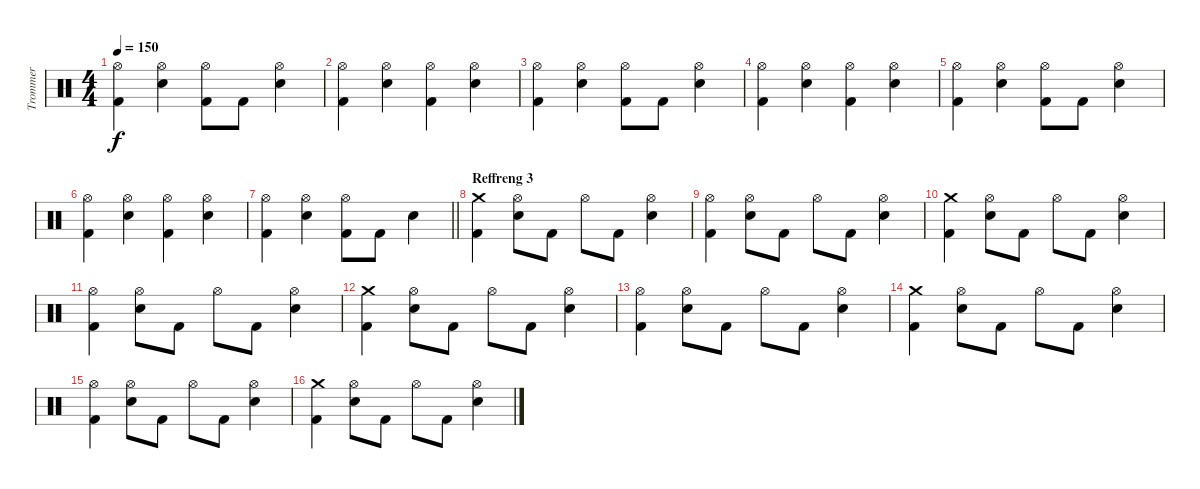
\track ("Trommer" "Trommer") {instrument percussion}
\staff {score}
\articulation defaults
\ts (4 4)
\tempo 150
\clef neutral
\ks c
("Hi-Hat (open)" "Kick (hit) 2").4{dy f} ("Hi-Hat (open)" "Snare (hit) 2").4 ("Hi-Hat (open)" "Kick (hit) 2").8 "Kick (hit) 2".8 ("Hi-Hat (open)" "Snare (hit) 2").4 |
("Hi-Hat (open)" "Kick (hit) 2").4 ("Hi-Hat (open)" "Snare (hit) 2").4 ("Hi-Hat (open)" "Kick (hit) 2").4 ("Hi-Hat (open)" "Snare (hit) 2").4 |
("Hi-Hat (open)" "Kick (hit) 2").4 ("Hi-Hat (open)" "Snare (hit) 2").4 ("Hi-Hat (open)" "Kick (hit) 2").8 "Kick (hit) 2".8 ("Hi-Hat (open)" "Snare (hit) 2").4 |
("Hi-Hat (open)" "Kick (hit) 2").4 ("Hi-Hat (open)" "Snare (hit) 2").4 ("Hi-Hat (open)" "Kick (hit) 2").4 ("Hi-Hat (open)" "Snare (hit) 2").4 |
("Hi-Hat (open)" "Kick (hit) 2").4 ("Hi-Hat (open)" "Snare (hit) 2").4 ("Hi-Hat (open)" "Kick (hit) 2").8 "Kick (hit) 2".8 ("Hi-Hat (open)" "Snare (hit) 2").4 |
("Hi-Hat (open)" "Kick (hit) 2").4 ("Hi-Hat (open)" "Snare (hit) 2").4 ("Hi-Hat (open)" "Kick (hit) 2").4 ("Hi-Hat (open)" "Snare (hit) 2").4 |
\barLineRight lightlight
("Hi-Hat (open)" "Kick (hit) 2").4 ("Hi-Hat (open)" "Snare (hit) 2").4 ("Hi-Hat (open)" "Kick (hit) 2").8 "Kick (hit) 2".8 "Snare (hit) 2".4 |
\section ("" "Reffreng 3")
("Crash medium (hit)" "Kick (hit) 2").4 ("Hi-Hat (open)" "Snare (hit) 2").8 "Kick (hit) 2".8 "Hi-Hat (open)".8 "Kick (hit) 2".8 ("Hi-Hat (open)" "Snare (hit) 2").4 |
("Hi-Hat (open)" "Kick (hit) 2").4 ("Hi-Hat (open)" "Snare (hit) 2").8 "Kick (hit) 2".8 "Hi-Hat (open)".8 "Kick (hit) 2".8 ("Hi-Hat (open)" "Snare (hit) 2").4 |
("Crash medium (hit)" "Kick (hit) 2").4 ("Hi-Hat (open)" "Snare (hit) 2").8 "Kick (hit) 2".8 "Hi-Hat (open)".8 "Kick (hit) 2".8 ("Hi-Hat (open)" "Snare (hit) 2").4 |
("Hi-Hat (open)" "Kick (hit) 2").4 ("Hi-Hat (open)" "Snare (hit) 2").8 "Kick (hit) 2".8 "Hi-Hat (open)".8 "Kick (hit) 2".8 ("Hi-Hat (open)" "Snare (hit) 2").4 |
("Crash medium (hit)" "Kick (hit) 2").4 ("Hi-Hat (open)" "Snare (hit) 2").8 "Kick (hit) 2".8 "Hi-Hat (open)".8 "Kick (hit) 2".8 ("Hi-Hat (open)" "Snare (hit) 2").4 |
("Hi-Hat (open)" "Kick (hit) 2").4 ("Hi-Hat (open)" "Snare (hit) 2").8 "Kick (hit) 2".8 "Hi-Hat (open)".8 "Kick (hit) 2".8 ("Hi-Hat (open)" "Snare (hit) 2").4 |
("Crash medium (hit)" "Kick (hit) 2").4 ("Hi-Hat (open)" "Snare (hit) 2").8 "Kick (hit) 2".8 "Hi-Hat (open)".8 "Kick (hit) 2".8 ("Hi-Hat (open)" "Snare (hit) 2").4 |
("Hi-Hat (open)" "Kick (hit) 2").4 ("Hi-Hat (open)" "Snare (hit) 2").8 "Kick (hit) 2".8 "Hi-Hat (open)".8 "Kick (hit) 2".8 ("Hi-Hat (open)" "Snare (hit) 2").4 |
("Crash medium (hit)" "Kick (hit) 2").4 ("Hi-Hat (open)" "Snare (hit) 2").8 "Kick (hit) 2".8 "Hi-Hat (open)".8 "Kick (hit) 2".8 ("Hi-Hat (open)" "Snare (hit) 2").4
